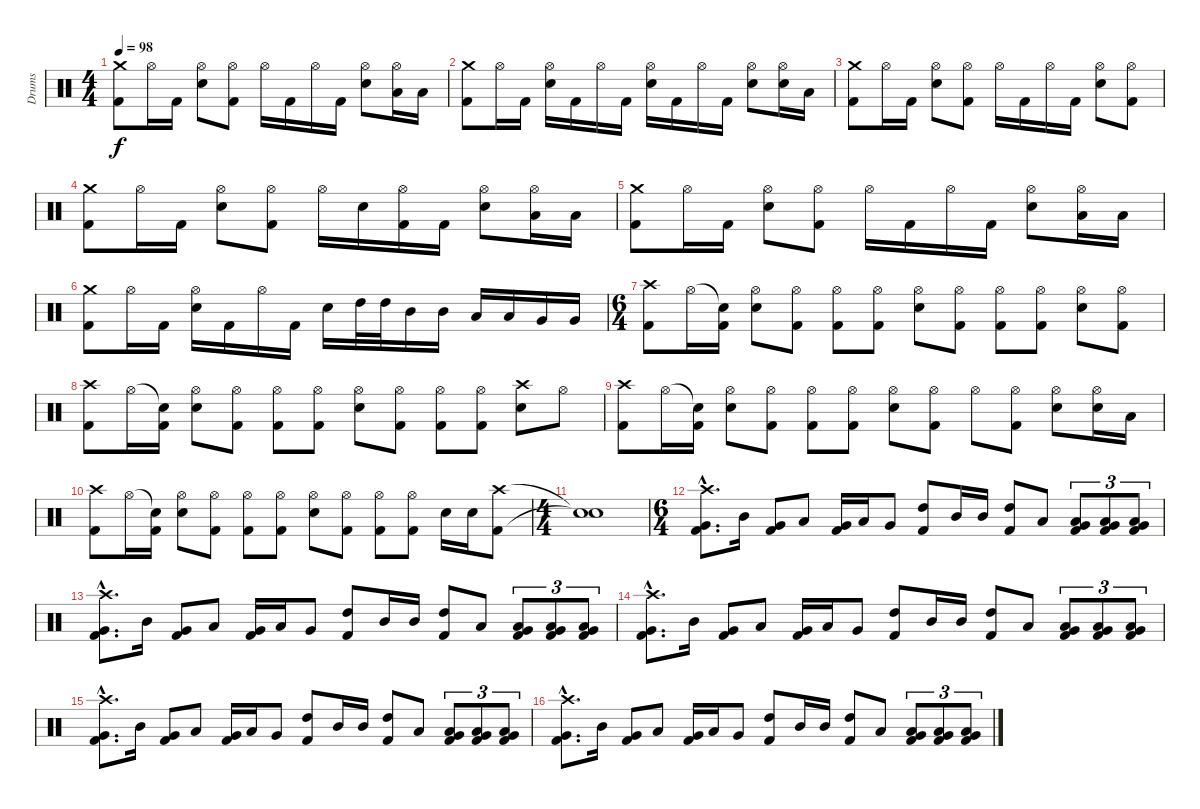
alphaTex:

\track ("Drums" "Drums") {instrument percussion}
\staff {score}
\articulation defaults
\ts (4 4)
\tempo 98
\clef neutral
\ks c
("Crash medium (hit)" "Kick (hit) 2").8{dy f} "Hi-Hat (open)".16 "Kick (hit) 2".16 ("Hi-Hat (open)" "Snare (hit) 2").8 ("Hi-Hat (open)" "Kick (hit) 2").8 "Hi-Hat (open)".16 "Kick (hit) 2".16 "Hi-Hat (open)".16 "Kick (hit) 2".16 ("Hi-Hat (open)" "Snare (hit) 2").8 ("Hi-Hat (open)" "Low Tom (hit)").16 "Low Tom (hit)".16 |
("Crash medium (hit)" "Kick (hit) 2").8 "Hi-Hat (open)".16 "Kick (hit) 2".16 ("Hi-Hat (open)" "Snare (hit) 2").16 "Kick (hit) 2".16 "Hi-Hat (open)".16 "Kick (hit) 2".16 ("Hi-Hat (open)" "Snare (hit) 2").16 "Kick (hit) 2".16 "Hi-Hat (open)".16 "Kick (hit) 2".16 ("Hi-Hat (open)" "Snare (hit) 2").8 ("Hi-Hat (open)" "Snare (hit) 2").16 "Low Tom (hit)".16 |
("Crash medium (hit)" "Kick (hit) 2").8 "Hi-Hat (open)".16 "Kick (hit) 2".16 ("Hi-Hat (open)" "Snare (hit) 2").8 ("Hi-Hat (open)" "Kick (hit) 2").8 "Hi-Hat (open)".16 "Kick (hit) 2".16 "Hi-Hat (open)".16 "Kick (hit) 2".16 ("Hi-Hat (open)" "Snare (hit) 2").8 ("Hi-Hat (open)" "Kick (hit) 2").8 |
("Crash medium (hit)" "Kick (hit) 2").8 "Hi-Hat (open)".16 "Kick (hit) 2".16 ("Hi-Hat (open)" "Snare (hit) 2").8 ("Hi-Hat (open)" "Kick (hit) 2").8 "Hi-Hat (open)".16 "Snare (hit) 2".16 ("Hi-Hat (open)" "Kick (hit) 2").16 "Kick (hit) 2".16 ("Hi-Hat (open)" "Snare (hit) 2").8 ("Hi-Hat (open)" "Low Tom (hit)").16 "Low Tom (hit)".16 |
("Crash medium (hit)" "Kick (hit) 2").8 "Hi-Hat (open)".16 "Kick (hit) 2".16 ("Hi-Hat (open)" "Snare (hit) 2").8 ("Hi-Hat (open)" "Kick (hit) 2").8 "Hi-Hat (open)".16 "Kick (hit) 2".16 "Hi-Hat (open)".16 "Kick (hit) 2".16 ("Hi-Hat (open)" "Snare (hit) 2").8 ("Hi-Hat (open)" "Low Tom (hit)").16 "Low Tom (hit)".16 |
("Crash medium (hit)" "Kick (hit) 2").8 "Hi-Hat (open)".16 "Kick (hit) 2".16 ("Hi-Hat (open)" "Snare (hit) 2").16 "Kick (hit) 2".16 "Hi-Hat (open)".16 "Kick (hit) 2".16 "Snare (hit) 2".16 "High Tom (hit)".32 "High Tom (hit)".32 "Mid Tom (hit)".16 "Mid Tom (hit)".16 "Low Tom (hit)".16 "Low Tom (hit)".16 "Very Low Tom (hit)".16 "Very Low Tom (hit)".16 |
\ts (6 4)
("Crash high (hit)" "Kick (hit) 2").8 "Hi-Hat (open)".16 ("Snare (hit)"{t} "Kick (hit) 2").16 ("Hi-Hat (open)" "Snare (hit) 2").8 ("Hi-Hat (open)" "Kick (hit) 2").8 ("Hi-Hat (open)" "Kick (hit) 2").8 ("Hi-Hat (open)" "Kick (hit) 2").8 ("Hi-Hat (open)" "Snare (hit) 2").8 ("Hi-Hat (open)" "Kick (hit) 2").8 ("Hi-Hat (open)" "Kick (hit) 2").8 ("Hi-Hat (open)" "Kick (hit) 2").8 ("Hi-Hat (open)" "Snare (hit) 2").8 ("Hi-Hat (open)" "Kick (hit) 2").8 |
("Crash high (hit)" "Kick (hit) 2").8 "Hi-Hat (open)".16 ("Snare (hit)"{t} "Kick (hit) 2").16 ("Hi-Hat (open)" "Snare (hit) 2").8 ("Hi-Hat (open)" "Kick (hit) 2").8 ("Hi-Hat (open)" "Kick (hit) 2").8 ("Hi-Hat (open)" "Kick (hit) 2").8 ("Hi-Hat (open)" "Snare (hit) 2").8 ("Hi-Hat (open)" "Kick (hit) 2").8 ("Hi-Hat (open)" "Kick (hit) 2").8 ("Hi-Hat (open)" "Kick (hit) 2").8 ("Crash high (hit)" "Snare (hit) 2").8 "Hi-Hat (open)".8 |
("Crash high (hit)" "Kick (hit) 2").8 "Hi-Hat (open)".16 ("Snare (hit)"{t} "Kick (hit) 2").16 ("Hi-Hat (open)" "Snare (hit) 2").8 ("Hi-Hat (open)" "Kick (hit) 2").8 ("Hi-Hat (open)" "Kick (hit) 2").8 ("Hi-Hat (open)" "Kick (hit) 2").8 ("Hi-Hat (open)" "Snare (hit) 2").8 ("Hi-Hat (open)" "Kick (hit) 2").8 "Hi-Hat (open)".8 ("Hi-Hat (open)" "Kick (hit) 2").8 ("Hi-Hat (open)" "Snare (hit) 2").8 ("Hi-Hat (open)" "Snare (hit) 2").16 "Low Tom (hit)".16 |
("Crash high (hit)" "Kick (hit) 2").8 "Hi-Hat (open)".16 ("Snare (hit)"{t} "Kick (hit) 2").16 ("Hi-Hat (open)" "Snare (hit) 2").8 ("Hi-Hat (open)" "Kick (hit) 2").8 ("Hi-Hat (open)" "Kick (hit) 2").8 ("Hi-Hat (open)" "Kick (hit) 2").8 ("Hi-Hat (open)" "Snare (hit) 2").8 ("Hi-Hat (open)" "Kick (hit) 2").8 ("Hi-Hat (open)" "Kick (hit) 2").8 ("Hi-Hat (open)" "Kick (hit) 2").8 "Snare (hit) 2".16 "Snare (hit) 2".16 ("Crash high (hit)" "Kick (hit) 2").8 |
\ts (4 4)
("Snare (hit)"{t} "Snare (hit)"{t}).1 |
\ts (6 4)
("Crash high (hit)"{hac} "Very Low Tom (hit)"{hac} "Kick (hit) 2"{hac}).8{d} "Mid Tom (hit)".16 ("Very Low Tom (hit)" "Kick (hit) 2").8 "Low Tom (hit)".8 ("Very Low Tom (hit)" "Kick (hit) 2").16 "Low Tom (hit)".16 "Very Low Tom (hit)".8 ("High Tom (hit)" "Kick (hit) 2").8 "Mid Tom (hit)".16 "Mid Tom (hit)".16 ("High Tom (hit)" "Kick (hit) 2").8 "Low Tom (hit)".8 ("Low Tom (hit)" "Very Low Tom (hit)" "Kick (hit) 2").8{tu (3 2)} ("Low Tom (hit)" "Very Low Tom (hit)" "Kick (hit) 2").8{tu (3 2)} ("Low Tom (hit)" "Very Low Tom (hit)" "Kick (hit) 2").8{tu (3 2)} |
("Crash high (hit)"{hac} "Very Low Tom (hit)"{hac} "Kick (hit) 2"{hac}).8{d} "Mid Tom (hit)".16 ("Very Low Tom (hit)" "Kick (hit) 2").8 "Low Tom (hit)".8 ("Very Low Tom (hit)" "Kick (hit) 2").16 "Low Tom (hit)".16 "Very Low Tom (hit)".8 ("High Tom (hit)" "Kick (hit) 2").8 "Mid Tom (hit)".16 "Mid Tom (hit)".16 ("High Tom (hit)" "Kick (hit) 2").8 "Low Tom (hit)".8 ("Low Tom (hit)" "Very Low Tom (hit)" "Kick (hit) 2").8{tu (3 2)} ("Low Tom (hit)" "Very Low Tom (hit)" "Kick (hit) 2").8{tu (3 2)} ("Low Tom (hit)" "Very Low Tom (hit)" "Kick (hit) 2").8{tu (3 2)} |
("Crash high (hit)"{hac} "Very Low Tom (hit)"{hac} "Kick (hit) 2"{hac}).8{d} "Mid Tom (hit)".16 ("Very Low Tom (hit)" "Kick (hit) 2").8 "Low Tom (hit)".8 ("Very Low Tom (hit)" "Kick (hit) 2").16 "Low Tom (hit)".16 "Very Low Tom (hit)".8 ("High Tom (hit)" "Kick (hit) 2").8 "Mid Tom (hit)".16 "Mid Tom (hit)".16 ("High Tom (hit)" "Kick (hit) 2").8 "Low Tom (hit)".8 ("Low Tom (hit)" "Very Low Tom (hit)" "Kick (hit) 2").8{tu (3 2)} ("Low Tom (hit)" "Very Low Tom (hit)" "Kick (hit) 2").8{tu (3 2)} ("Low Tom (hit)" "Very Low Tom (hit)" "Kick (hit) 2").8{tu (3 2)} |
("Crash high (hit)"{hac} "Very Low Tom (hit)"{hac} "Kick (hit) 2"{hac}).8{d} "Mid Tom (hit)".16 ("Very Low Tom (hit)" "Kick (hit) 2").8 "Low Tom (hit)".8 ("Very Low Tom (hit)" "Kick (hit) 2").16 "Low Tom (hit)".16 "Very Low Tom (hit)".8 ("High Tom (hit)" "Kick (hit) 2").8 "Mid Tom (hit)".16 "Mid Tom (hit)".16 ("High Tom (hit)" "Kick (hit) 2").8 "Low Tom (hit)".8 ("Low Tom (hit)" "Very Low Tom (hit)" "Kick (hit) 2").8{tu (3 2)} ("Low Tom (hit)" "Very Low Tom (hit)" "Kick (hit) 2").8{tu (3 2)} ("Low Tom (hit)" "Very Low Tom (hit)" "Kick (hit) 2").8{tu (3 2)} |
("Crash high (hit)"{hac} "Very Low Tom (hit)"{hac} "Kick (hit) 2"{hac}).8{d} "Mid Tom (hit)".16 ("Very Low Tom (hit)" "Kick (hit) 2").8 "Low Tom (hit)".8 ("Very Low Tom (hit)" "Kick (hit) 2").16 "Low Tom (hit)".16 "Very Low Tom (hit)".8 ("High Tom (hit)" "Kick (hit) 2").8 "Mid Tom (hit)".16 "Mid Tom (hit)".16 ("High Tom (hit)" "Kick (hit) 2").8 "Low Tom (hit)".8 ("Low Tom (hit)" "Very Low Tom (hit)" "Kick (hit) 2").8{tu (3 2)} ("Low Tom (hit)" "Very Low Tom (hit)" "Kick (hit) 2").8{tu (3 2)} ("Low Tom (hit)" "Very Low Tom (hit)" "Kick (hit) 2").8{tu (3 2)}
